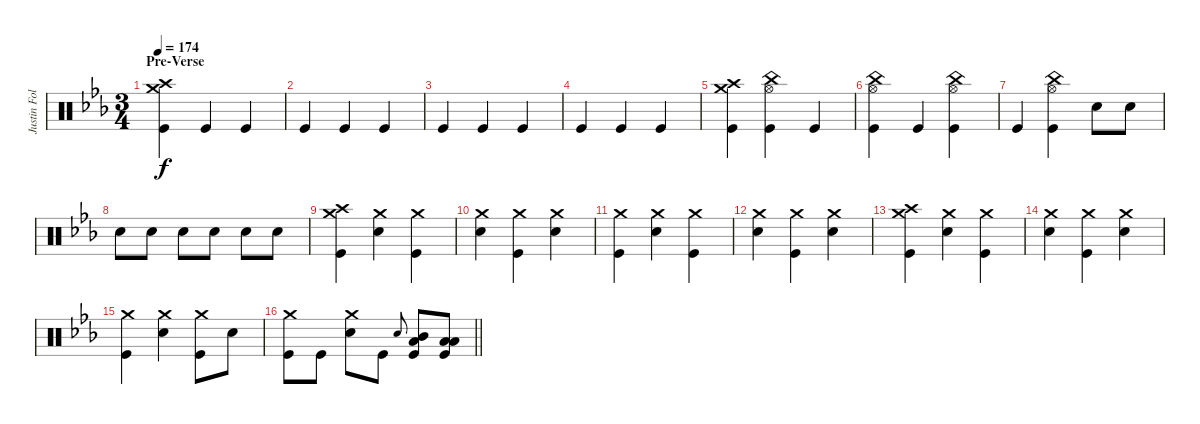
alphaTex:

\track ("Justin Foley" "Justin Fol") {instrument percussion}
\staff {score}
\articulation defaults
\ts (3 4)
\section ("" "Pre-Verse")
\tempo 174
\clef neutral
\ks cminor
("Crash medium (hit)" "Kick (hit)" "Crash high (hit)").4{dy f} "Kick (hit)".4 "Kick (hit)".4 |
"Kick (hit)".4 "Kick (hit)".4 "Kick (hit)".4 |
"Kick (hit)".4 "Kick (hit)".4 "Kick (hit)".4 |
"Kick (hit)".4 "Kick (hit)".4 "Kick (hit)".4 |
("Crash medium (hit)" "Kick (hit)" "Crash high (hit)").4 ("Hi-Hat (open)" "Kick (hit)" "China (hit)").4 "Kick (hit)".4 |
("Hi-Hat (open)" "Kick (hit)" "China (hit)").4 "Kick (hit)".4 ("Hi-Hat (open)" "Kick (hit)" "China (hit)").4 |
"Kick (hit)".4 ("Hi-Hat (open)" "Kick (hit)" "China (hit)").4 "Snare (hit) 2".8 "Snare (hit) 2".8 |
"Snare (hit) 2".8 "Snare (hit) 2".8 "Snare (hit) 2".8 "Snare (hit) 2".8 "Snare (hit) 2".8 "Snare (hit) 2".8 |
("Crash medium (hit)" "Kick (hit)" "Crash high (hit)").4 ("Crash medium (hit)" "Snare (hit) 2").4 ("Crash medium (hit)" "Kick (hit)").4 |
("Crash medium (hit)" "Snare (hit) 2").4 ("Crash medium (hit)" "Kick (hit)").4 ("Crash medium (hit)" "Snare (hit) 2").4 |
("Crash medium (hit)" "Kick (hit)").4 ("Crash medium (hit)" "Snare (hit) 2").4 ("Crash medium (hit)" "Kick (hit)").4 |
("Crash medium (hit)" "Snare (hit) 2").4 ("Crash medium (hit)" "Kick (hit)").4 ("Crash medium (hit)" "Snare (hit) 2").4 |
("Crash medium (hit)" "Kick (hit)" "Crash high (hit)").4 ("Crash medium (hit)" "Snare (hit) 2").4 ("Crash medium (hit)" "Kick (hit)").4 |
("Crash medium (hit)" "Snare (hit) 2").4 ("Crash medium (hit)" "Kick (hit)").4 ("Crash medium (hit)" "Snare (hit) 2").4 |
("Crash medium (hit)" "Kick (hit)").4 ("Crash medium (hit)" "Snare (hit) 2").4 ("Crash medium (hit)" "Kick (hit)").8 "Snare (hit) 2".8 |
\barLineRight lightlight
("Crash medium (hit)" "Kick (hit)").8 "Kick (hit)".8 ("Snare (hit) 2" "Crash medium (hit)").8 "Kick (hit)".8 "Snare (hit)".8{gr onbeat} ("Mid Tom (hit)" "Low Tom (hit)" "Kick (hit)").8 ("Low Floor Tom (hit)" "Low Tom (hit)" "Kick (hit)").8
